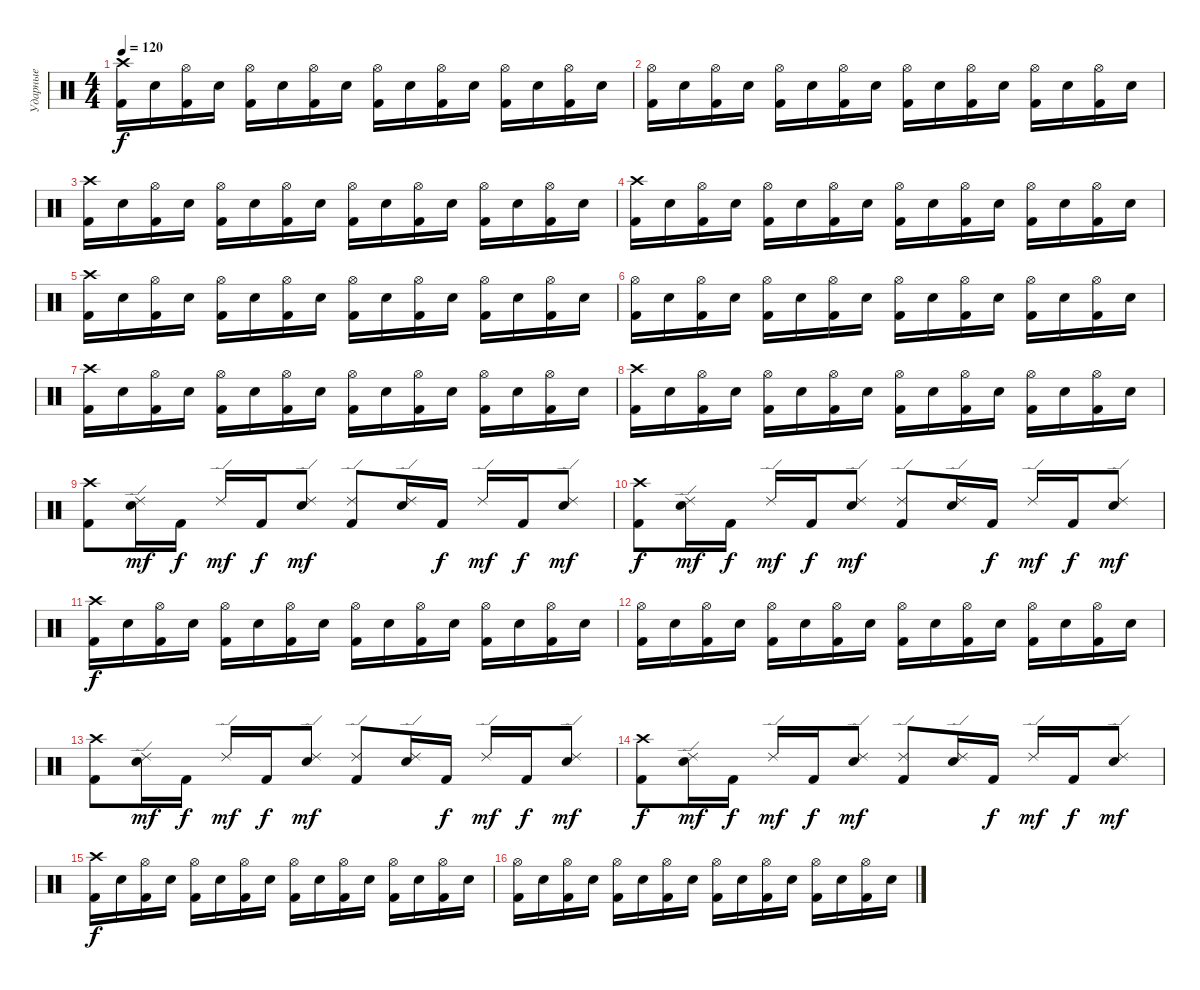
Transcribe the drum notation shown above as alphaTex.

\track ("Ударные" "Ударные") {instrument percussion}
\staff {score}
\articulation defaults
\ts (4 4)
\tempo 120
\clef neutral
\ks c
("Crash high (hit)" "Kick (hit) 2").16{dy f} "Electric Snare (hit)".16 ("Hi-Hat (open)" "Kick (hit) 2").16 "Electric Snare (hit)".16 ("Hi-Hat (open)" "Kick (hit) 2").16 "Electric Snare (hit)".16 ("Hi-Hat (open)" "Kick (hit) 2").16 "Electric Snare (hit)".16 ("Hi-Hat (open)" "Kick (hit) 2").16 "Electric Snare (hit)".16 ("Hi-Hat (open)" "Kick (hit) 2").16 "Electric Snare (hit)".16 ("Hi-Hat (open)" "Kick (hit) 2").16 "Electric Snare (hit)".16 ("Hi-Hat (open)" "Kick (hit) 2").16 "Electric Snare (hit)".16 |
("Hi-Hat (open)" "Kick (hit) 2").16 "Electric Snare (hit)".16 ("Hi-Hat (open)" "Kick (hit) 2").16 "Electric Snare (hit)".16 ("Hi-Hat (open)" "Kick (hit) 2").16 "Electric Snare (hit)".16 ("Hi-Hat (open)" "Kick (hit) 2").16 "Electric Snare (hit)".16 ("Hi-Hat (open)" "Kick (hit) 2").16 "Electric Snare (hit)".16 ("Hi-Hat (open)" "Kick (hit) 2").16 "Electric Snare (hit)".16 ("Hi-Hat (open)" "Kick (hit) 2").16 "Electric Snare (hit)".16 ("Hi-Hat (open)" "Kick (hit) 2").16 "Electric Snare (hit)".16 |
("Crash high (hit)" "Kick (hit) 2").16 "Electric Snare (hit)".16 ("Hi-Hat (open)" "Kick (hit) 2").16 "Electric Snare (hit)".16 ("Hi-Hat (open)" "Kick (hit) 2").16 "Electric Snare (hit)".16 ("Hi-Hat (open)" "Kick (hit) 2").16 "Electric Snare (hit)".16 ("Hi-Hat (open)" "Kick (hit) 2").16 "Electric Snare (hit)".16 ("Hi-Hat (open)" "Kick (hit) 2").16 "Electric Snare (hit)".16 ("Hi-Hat (open)" "Kick (hit) 2").16 "Electric Snare (hit)".16 ("Hi-Hat (open)" "Kick (hit) 2").16 "Electric Snare (hit)".16 |
("Crash high (hit)" "Kick (hit) 2").16 "Electric Snare (hit)".16 ("Hi-Hat (open)" "Kick (hit) 2").16 "Electric Snare (hit)".16 ("Hi-Hat (open)" "Kick (hit) 2").16 "Electric Snare (hit)".16 ("Hi-Hat (open)" "Kick (hit) 2").16 "Electric Snare (hit)".16 ("Hi-Hat (open)" "Kick (hit) 2").16 "Electric Snare (hit)".16 ("Hi-Hat (open)" "Kick (hit) 2").16 "Electric Snare (hit)".16 ("Hi-Hat (open)" "Kick (hit) 2").16 "Electric Snare (hit)".16 ("Hi-Hat (open)" "Kick (hit) 2").16 "Electric Snare (hit)".16 |
("Crash high (hit)" "Kick (hit) 2").16 "Electric Snare (hit)".16 ("Hi-Hat (open)" "Kick (hit) 2").16 "Electric Snare (hit)".16 ("Hi-Hat (open)" "Kick (hit) 2").16 "Electric Snare (hit)".16 ("Hi-Hat (open)" "Kick (hit) 2").16 "Electric Snare (hit)".16 ("Hi-Hat (open)" "Kick (hit) 2").16 "Electric Snare (hit)".16 ("Hi-Hat (open)" "Kick (hit) 2").16 "Electric Snare (hit)".16 ("Hi-Hat (open)" "Kick (hit) 2").16 "Electric Snare (hit)".16 ("Hi-Hat (open)" "Kick (hit) 2").16 "Electric Snare (hit)".16 |
("Hi-Hat (open)" "Kick (hit) 2").16 "Electric Snare (hit)".16 ("Hi-Hat (open)" "Kick (hit) 2").16 "Electric Snare (hit)".16 ("Hi-Hat (open)" "Kick (hit) 2").16 "Electric Snare (hit)".16 ("Hi-Hat (open)" "Kick (hit) 2").16 "Electric Snare (hit)".16 ("Hi-Hat (open)" "Kick (hit) 2").16 "Electric Snare (hit)".16 ("Hi-Hat (open)" "Kick (hit) 2").16 "Electric Snare (hit)".16 ("Hi-Hat (open)" "Kick (hit) 2").16 "Electric Snare (hit)".16 ("Hi-Hat (open)" "Kick (hit) 2").16 "Electric Snare (hit)".16 |
("Crash high (hit)" "Kick (hit) 2").16 "Electric Snare (hit)".16 ("Hi-Hat (open)" "Kick (hit) 2").16 "Electric Snare (hit)".16 ("Hi-Hat (open)" "Kick (hit) 2").16 "Electric Snare (hit)".16 ("Hi-Hat (open)" "Kick (hit) 2").16 "Electric Snare (hit)".16 ("Hi-Hat (open)" "Kick (hit) 2").16 "Electric Snare (hit)".16 ("Hi-Hat (open)" "Kick (hit) 2").16 "Electric Snare (hit)".16 ("Hi-Hat (open)" "Kick (hit) 2").16 "Electric Snare (hit)".16 ("Hi-Hat (open)" "Kick (hit) 2").16 "Electric Snare (hit)".16 |
("Crash high (hit)" "Kick (hit) 2").16 "Electric Snare (hit)".16 ("Hi-Hat (open)" "Kick (hit) 2").16 "Electric Snare (hit)".16 ("Hi-Hat (open)" "Kick (hit) 2").16 "Electric Snare (hit)".16 ("Hi-Hat (open)" "Kick (hit) 2").16 "Electric Snare (hit)".16 ("Hi-Hat (open)" "Kick (hit) 2").16 "Electric Snare (hit)".16 ("Hi-Hat (open)" "Kick (hit) 2").16 "Electric Snare (hit)".16 ("Hi-Hat (open)" "Kick (hit) 2").16 "Electric Snare (hit)".16 ("Hi-Hat (open)" "Kick (hit) 2").16 "Electric Snare (hit)".16 |
("Crash high (hit)" "Kick (hit) 2").8 ("Ride (edge) 2" "Electric Snare (hit)").16{dy mf} "Kick (hit) 2".16{dy f} "Ride (edge) 2".16{dy mf} "Kick (hit) 2".16{dy f} ("Ride (edge) 2" "Electric Snare (hit)").8{dy mf} ("Ride (edge) 2" "Kick (hit) 2").8 ("Ride (edge) 2" "Electric Snare (hit)").16 "Kick (hit) 2".16{dy f} "Ride (edge) 2".16{dy mf} "Kick (hit) 2".16{dy f} ("Ride (edge) 2" "Electric Snare (hit)").8{dy mf} |
("Crash high (hit)" "Kick (hit) 2").8{dy f} ("Ride (edge) 2" "Electric Snare (hit)").16{dy mf} "Kick (hit) 2".16{dy f} "Ride (edge) 2".16{dy mf} "Kick (hit) 2".16{dy f} ("Ride (edge) 2" "Electric Snare (hit)").8{dy mf} ("Ride (edge) 2" "Kick (hit) 2").8 ("Ride (edge) 2" "Electric Snare (hit)").16 "Kick (hit) 2".16{dy f} "Ride (edge) 2".16{dy mf} "Kick (hit) 2".16{dy f} ("Ride (edge) 2" "Electric Snare (hit)").8{dy mf} |
("Crash high (hit)" "Kick (hit) 2").16{dy f} "Electric Snare (hit)".16 ("Hi-Hat (open)" "Kick (hit) 2").16 "Electric Snare (hit)".16 ("Hi-Hat (open)" "Kick (hit) 2").16 "Electric Snare (hit)".16 ("Hi-Hat (open)" "Kick (hit) 2").16 "Electric Snare (hit)".16 ("Hi-Hat (open)" "Kick (hit) 2").16 "Electric Snare (hit)".16 ("Hi-Hat (open)" "Kick (hit) 2").16 "Electric Snare (hit)".16 ("Hi-Hat (open)" "Kick (hit) 2").16 "Electric Snare (hit)".16 ("Hi-Hat (open)" "Kick (hit) 2").16 "Electric Snare (hit)".16 |
("Hi-Hat (open)" "Kick (hit) 2").16 "Electric Snare (hit)".16 ("Hi-Hat (open)" "Kick (hit) 2").16 "Electric Snare (hit)".16 ("Hi-Hat (open)" "Kick (hit) 2").16 "Electric Snare (hit)".16 ("Hi-Hat (open)" "Kick (hit) 2").16 "Electric Snare (hit)".16 ("Hi-Hat (open)" "Kick (hit) 2").16 "Electric Snare (hit)".16 ("Hi-Hat (open)" "Kick (hit) 2").16 "Electric Snare (hit)".16 ("Hi-Hat (open)" "Kick (hit) 2").16 "Electric Snare (hit)".16 ("Hi-Hat (open)" "Kick (hit) 2").16 "Electric Snare (hit)".16 |
("Crash high (hit)" "Kick (hit) 2").8 ("Ride (edge) 2" "Electric Snare (hit)").16{dy mf} "Kick (hit) 2".16{dy f} "Ride (edge) 2".16{dy mf} "Kick (hit) 2".16{dy f} ("Ride (edge) 2" "Electric Snare (hit)").8{dy mf} ("Ride (edge) 2" "Kick (hit) 2").8 ("Ride (edge) 2" "Electric Snare (hit)").16 "Kick (hit) 2".16{dy f} "Ride (edge) 2".16{dy mf} "Kick (hit) 2".16{dy f} ("Ride (edge) 2" "Electric Snare (hit)").8{dy mf} |
("Crash high (hit)" "Kick (hit) 2").8{dy f} ("Ride (edge) 2" "Electric Snare (hit)").16{dy mf} "Kick (hit) 2".16{dy f} "Ride (edge) 2".16{dy mf} "Kick (hit) 2".16{dy f} ("Ride (edge) 2" "Electric Snare (hit)").8{dy mf} ("Ride (edge) 2" "Kick (hit) 2").8 ("Ride (edge) 2" "Electric Snare (hit)").16 "Kick (hit) 2".16{dy f} "Ride (edge) 2".16{dy mf} "Kick (hit) 2".16{dy f} ("Ride (edge) 2" "Electric Snare (hit)").8{dy mf} |
("Crash high (hit)" "Kick (hit) 2").16{dy f} "Electric Snare (hit)".16 ("Hi-Hat (open)" "Kick (hit) 2").16 "Electric Snare (hit)".16 ("Hi-Hat (open)" "Kick (hit) 2").16 "Electric Snare (hit)".16 ("Hi-Hat (open)" "Kick (hit) 2").16 "Electric Snare (hit)".16 ("Hi-Hat (open)" "Kick (hit) 2").16 "Electric Snare (hit)".16 ("Hi-Hat (open)" "Kick (hit) 2").16 "Electric Snare (hit)".16 ("Hi-Hat (open)" "Kick (hit) 2").16 "Electric Snare (hit)".16 ("Hi-Hat (open)" "Kick (hit) 2").16 "Electric Snare (hit)".16 |
("Hi-Hat (open)" "Kick (hit) 2").16 "Electric Snare (hit)".16 ("Hi-Hat (open)" "Kick (hit) 2").16 "Electric Snare (hit)".16 ("Hi-Hat (open)" "Kick (hit) 2").16 "Electric Snare (hit)".16 ("Hi-Hat (open)" "Kick (hit) 2").16 "Electric Snare (hit)".16 ("Hi-Hat (open)" "Kick (hit) 2").16 "Electric Snare (hit)".16 ("Hi-Hat (open)" "Kick (hit) 2").16 "Electric Snare (hit)".16 ("Hi-Hat (open)" "Kick (hit) 2").16 "Electric Snare (hit)".16 ("Hi-Hat (open)" "Kick (hit) 2").16 "Electric Snare (hit)".16
